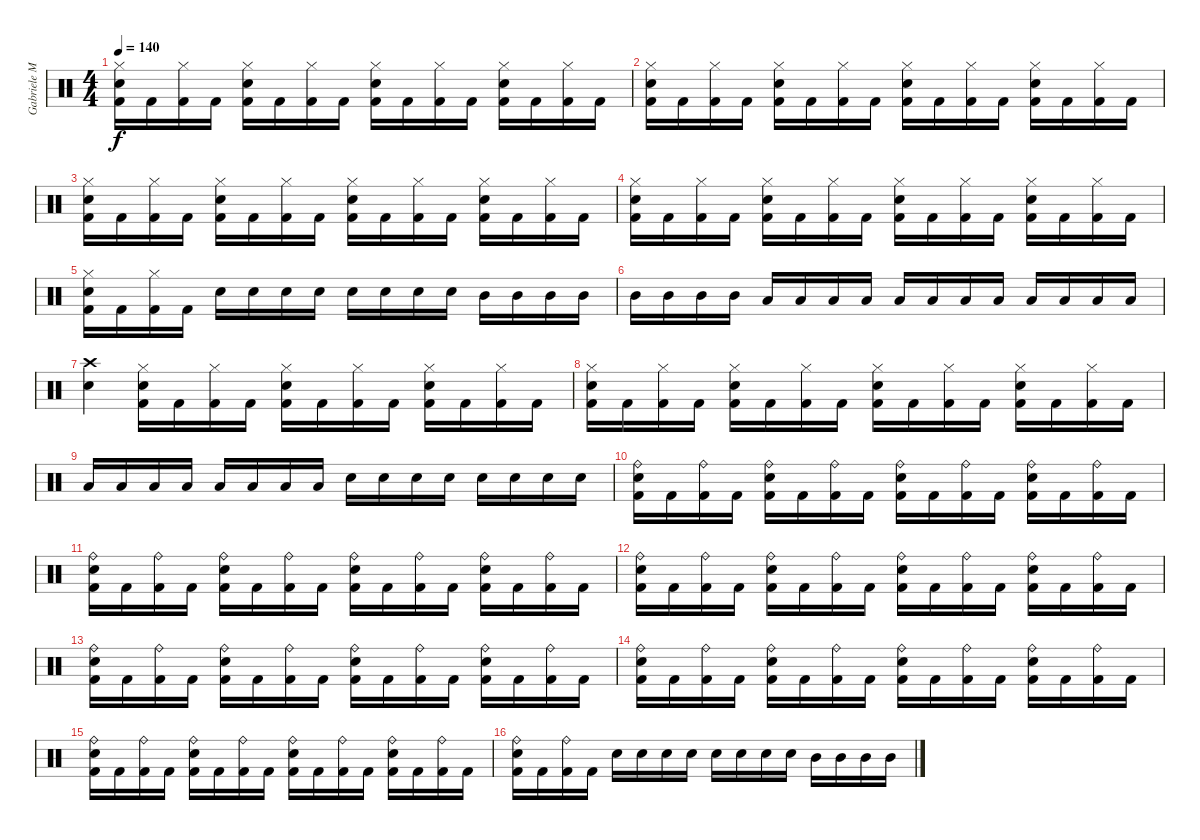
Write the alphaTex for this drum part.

\track ("Gabriele Malatesta" "Gabriele M") {instrument percussion}
\staff {score}
\articulation defaults
\ts (4 4)
\tempo 140
\clef neutral
\ks c
("Hi-Hat (closed)" "Electric Snare (hit)" "Kick (hit) 2").16{dy f} "Kick (hit) 2".16 ("Hi-Hat (closed)" "Kick (hit) 2").16 "Kick (hit) 2".16 ("Hi-Hat (closed)" "Electric Snare (hit)" "Kick (hit) 2").16 "Kick (hit) 2".16 ("Hi-Hat (closed)" "Kick (hit) 2").16 "Kick (hit) 2".16 ("Hi-Hat (closed)" "Electric Snare (hit)" "Kick (hit) 2").16 "Kick (hit) 2".16 ("Hi-Hat (closed)" "Kick (hit) 2").16 "Kick (hit) 2".16 ("Hi-Hat (closed)" "Electric Snare (hit)" "Kick (hit) 2").16 "Kick (hit) 2".16 ("Hi-Hat (closed)" "Kick (hit) 2").16 "Kick (hit) 2".16 |
("Hi-Hat (closed)" "Electric Snare (hit)" "Kick (hit) 2").16 "Kick (hit) 2".16 ("Hi-Hat (closed)" "Kick (hit) 2").16 "Kick (hit) 2".16 ("Hi-Hat (closed)" "Electric Snare (hit)" "Kick (hit) 2").16 "Kick (hit) 2".16 ("Hi-Hat (closed)" "Kick (hit) 2").16 "Kick (hit) 2".16 ("Hi-Hat (closed)" "Electric Snare (hit)" "Kick (hit) 2").16 "Kick (hit) 2".16 ("Hi-Hat (closed)" "Kick (hit) 2").16 "Kick (hit) 2".16 ("Hi-Hat (closed)" "Electric Snare (hit)" "Kick (hit) 2").16 "Kick (hit) 2".16 ("Hi-Hat (closed)" "Kick (hit) 2").16 "Kick (hit) 2".16 |
("Hi-Hat (closed)" "Electric Snare (hit)" "Kick (hit) 2").16 "Kick (hit) 2".16 ("Hi-Hat (closed)" "Kick (hit) 2").16 "Kick (hit) 2".16 ("Hi-Hat (closed)" "Electric Snare (hit)" "Kick (hit) 2").16 "Kick (hit) 2".16 ("Hi-Hat (closed)" "Kick (hit) 2").16 "Kick (hit) 2".16 ("Hi-Hat (closed)" "Electric Snare (hit)" "Kick (hit) 2").16 "Kick (hit) 2".16 ("Hi-Hat (closed)" "Kick (hit) 2").16 "Kick (hit) 2".16 ("Hi-Hat (closed)" "Electric Snare (hit)" "Kick (hit) 2").16 "Kick (hit) 2".16 ("Hi-Hat (closed)" "Kick (hit) 2").16 "Kick (hit) 2".16 |
("Hi-Hat (closed)" "Electric Snare (hit)" "Kick (hit) 2").16 "Kick (hit) 2".16 ("Hi-Hat (closed)" "Kick (hit) 2").16 "Kick (hit) 2".16 ("Hi-Hat (closed)" "Electric Snare (hit)" "Kick (hit) 2").16 "Kick (hit) 2".16 ("Hi-Hat (closed)" "Kick (hit) 2").16 "Kick (hit) 2".16 ("Hi-Hat (closed)" "Electric Snare (hit)" "Kick (hit) 2").16 "Kick (hit) 2".16 ("Hi-Hat (closed)" "Kick (hit) 2").16 "Kick (hit) 2".16 ("Hi-Hat (closed)" "Electric Snare (hit)" "Kick (hit) 2").16 "Kick (hit) 2".16 ("Hi-Hat (closed)" "Kick (hit) 2").16 "Kick (hit) 2".16 |
("Hi-Hat (closed)" "Electric Snare (hit)" "Kick (hit) 2").16 "Kick (hit) 2".16 ("Hi-Hat (closed)" "Kick (hit) 2").16 "Kick (hit) 2".16 "Electric Snare (hit)".16 "Electric Snare (hit)".16 "Electric Snare (hit)".16 "Electric Snare (hit)".16 "Electric Snare (hit)".16 "Electric Snare (hit)".16 "Electric Snare (hit)".16 "Electric Snare (hit)".16 "Mid Tom (hit)".16 "Mid Tom (hit)".16 "Mid Tom (hit)".16 "Mid Tom (hit)".16 |
"Mid Tom (hit)".16 "Mid Tom (hit)".16 "Mid Tom (hit)".16 "Mid Tom (hit)".16 "Low Tom (hit)".16 "Low Tom (hit)".16 "Low Tom (hit)".16 "Low Tom (hit)".16 "Low Tom (hit)".16 "Low Tom (hit)".16 "Low Tom (hit)".16 "Low Tom (hit)".16 "Low Tom (hit)".16 "Low Tom (hit)".16 "Low Tom (hit)".16 "Low Tom (hit)".16 |
("Crash high (hit)" "Electric Snare (hit)").4 ("Hi-Hat (closed)" "Electric Snare (hit)" "Kick (hit) 2").16 "Kick (hit) 2".16 ("Hi-Hat (closed)" "Kick (hit) 2").16 "Kick (hit) 2".16 ("Hi-Hat (closed)" "Electric Snare (hit)" "Kick (hit) 2").16 "Kick (hit) 2".16 ("Hi-Hat (closed)" "Kick (hit) 2").16 "Kick (hit) 2".16 ("Hi-Hat (closed)" "Electric Snare (hit)" "Kick (hit) 2").16 "Kick (hit) 2".16 ("Hi-Hat (closed)" "Kick (hit) 2").16 "Kick (hit) 2".16 |
("Hi-Hat (closed)" "Electric Snare (hit)" "Kick (hit) 2").16 "Kick (hit) 2".16 ("Hi-Hat (closed)" "Kick (hit) 2").16 "Kick (hit) 2".16 ("Hi-Hat (closed)" "Electric Snare (hit)" "Kick (hit) 2").16 "Kick (hit) 2".16 ("Hi-Hat (closed)" "Kick (hit) 2").16 "Kick (hit) 2".16 ("Hi-Hat (closed)" "Electric Snare (hit)" "Kick (hit) 2").16 "Kick (hit) 2".16 ("Hi-Hat (closed)" "Kick (hit) 2").16 "Kick (hit) 2".16 ("Hi-Hat (closed)" "Electric Snare (hit)" "Kick (hit) 2").16 "Kick (hit) 2".16 ("Hi-Hat (closed)" "Kick (hit) 2").16 "Kick (hit) 2".16 |
"Low Tom (hit)".16 "Low Tom (hit)".16 "Low Tom (hit)".16 "Low Tom (hit)".16 "Low Tom (hit)".16 "Low Tom (hit)".16 "Low Tom (hit)".16 "Low Tom (hit)".16 "Electric Snare (hit)".16 "Electric Snare (hit)".16 "Electric Snare (hit)".16 "Electric Snare (hit)".16 "Electric Snare (hit)".16 "Electric Snare (hit)".16 "Electric Snare (hit)".16 "Electric Snare (hit)".16 |
("Ride (bell)" "Electric Snare (hit)" "Kick (hit) 2").16 "Kick (hit) 2".16 ("Ride (bell)" "Kick (hit) 2").16 "Kick (hit) 2".16 ("Ride (bell)" "Electric Snare (hit)" "Kick (hit) 2").16 "Kick (hit) 2".16 ("Ride (bell)" "Kick (hit) 2").16 "Kick (hit) 2".16 ("Ride (bell)" "Electric Snare (hit)" "Kick (hit) 2").16 "Kick (hit) 2".16 ("Ride (bell)" "Kick (hit) 2").16 "Kick (hit) 2".16 ("Ride (bell)" "Electric Snare (hit)" "Kick (hit) 2").16 "Kick (hit) 2".16 ("Ride (bell)" "Kick (hit) 2").16 "Kick (hit) 2".16 |
("Ride (bell)" "Electric Snare (hit)" "Kick (hit) 2").16 "Kick (hit) 2".16 ("Ride (bell)" "Kick (hit) 2").16 "Kick (hit) 2".16 ("Ride (bell)" "Electric Snare (hit)" "Kick (hit) 2").16 "Kick (hit) 2".16 ("Ride (bell)" "Kick (hit) 2").16 "Kick (hit) 2".16 ("Ride (bell)" "Electric Snare (hit)" "Kick (hit) 2").16 "Kick (hit) 2".16 ("Ride (bell)" "Kick (hit) 2").16 "Kick (hit) 2".16 ("Ride (bell)" "Electric Snare (hit)" "Kick (hit) 2").16 "Kick (hit) 2".16 ("Ride (bell)" "Kick (hit) 2").16 "Kick (hit) 2".16 |
("Ride (bell)" "Electric Snare (hit)" "Kick (hit) 2").16 "Kick (hit) 2".16 ("Ride (bell)" "Kick (hit) 2").16 "Kick (hit) 2".16 ("Ride (bell)" "Electric Snare (hit)" "Kick (hit) 2").16 "Kick (hit) 2".16 ("Ride (bell)" "Kick (hit) 2").16 "Kick (hit) 2".16 ("Ride (bell)" "Electric Snare (hit)" "Kick (hit) 2").16 "Kick (hit) 2".16 ("Ride (bell)" "Kick (hit) 2").16 "Kick (hit) 2".16 ("Ride (bell)" "Electric Snare (hit)" "Kick (hit) 2").16 "Kick (hit) 2".16 ("Ride (bell)" "Kick (hit) 2").16 "Kick (hit) 2".16 |
("Ride (bell)" "Electric Snare (hit)" "Kick (hit) 2").16 "Kick (hit) 2".16 ("Ride (bell)" "Kick (hit) 2").16 "Kick (hit) 2".16 ("Ride (bell)" "Electric Snare (hit)" "Kick (hit) 2").16 "Kick (hit) 2".16 ("Ride (bell)" "Kick (hit) 2").16 "Kick (hit) 2".16 ("Ride (bell)" "Electric Snare (hit)" "Kick (hit) 2").16 "Kick (hit) 2".16 ("Ride (bell)" "Kick (hit) 2").16 "Kick (hit) 2".16 ("Ride (bell)" "Electric Snare (hit)" "Kick (hit) 2").16 "Kick (hit) 2".16 ("Ride (bell)" "Kick (hit) 2").16 "Kick (hit) 2".16 |
("Ride (bell)" "Electric Snare (hit)" "Kick (hit) 2").16 "Kick (hit) 2".16 ("Ride (bell)" "Kick (hit) 2").16 "Kick (hit) 2".16 ("Ride (bell)" "Electric Snare (hit)" "Kick (hit) 2").16 "Kick (hit) 2".16 ("Ride (bell)" "Kick (hit) 2").16 "Kick (hit) 2".16 ("Ride (bell)" "Electric Snare (hit)" "Kick (hit) 2").16 "Kick (hit) 2".16 ("Ride (bell)" "Kick (hit) 2").16 "Kick (hit) 2".16 ("Ride (bell)" "Electric Snare (hit)" "Kick (hit) 2").16 "Kick (hit) 2".16 ("Ride (bell)" "Kick (hit) 2").16 "Kick (hit) 2".16 |
("Ride (bell)" "Electric Snare (hit)" "Kick (hit) 2").16 "Kick (hit) 2".16 ("Ride (bell)" "Kick (hit) 2").16 "Kick (hit) 2".16 ("Ride (bell)" "Electric Snare (hit)" "Kick (hit) 2").16 "Kick (hit) 2".16 ("Ride (bell)" "Kick (hit) 2").16 "Kick (hit) 2".16 ("Ride (bell)" "Electric Snare (hit)" "Kick (hit) 2").16 "Kick (hit) 2".16 ("Ride (bell)" "Kick (hit) 2").16 "Kick (hit) 2".16 ("Ride (bell)" "Electric Snare (hit)" "Kick (hit) 2").16 "Kick (hit) 2".16 ("Ride (bell)" "Kick (hit) 2").16 "Kick (hit) 2".16 |
("Ride (bell)" "Electric Snare (hit)" "Kick (hit) 2").16 "Kick (hit) 2".16 ("Ride (bell)" "Kick (hit) 2").16 "Kick (hit) 2".16 "Electric Snare (hit)".16 "Electric Snare (hit)".16 "Electric Snare (hit)".16 "Electric Snare (hit)".16 "Electric Snare (hit)".16 "Electric Snare (hit)".16 "Electric Snare (hit)".16 "Electric Snare (hit)".16 "Mid Tom (hit)".16 "Mid Tom (hit)".16 "Mid Tom (hit)".16 "Mid Tom (hit)".16
